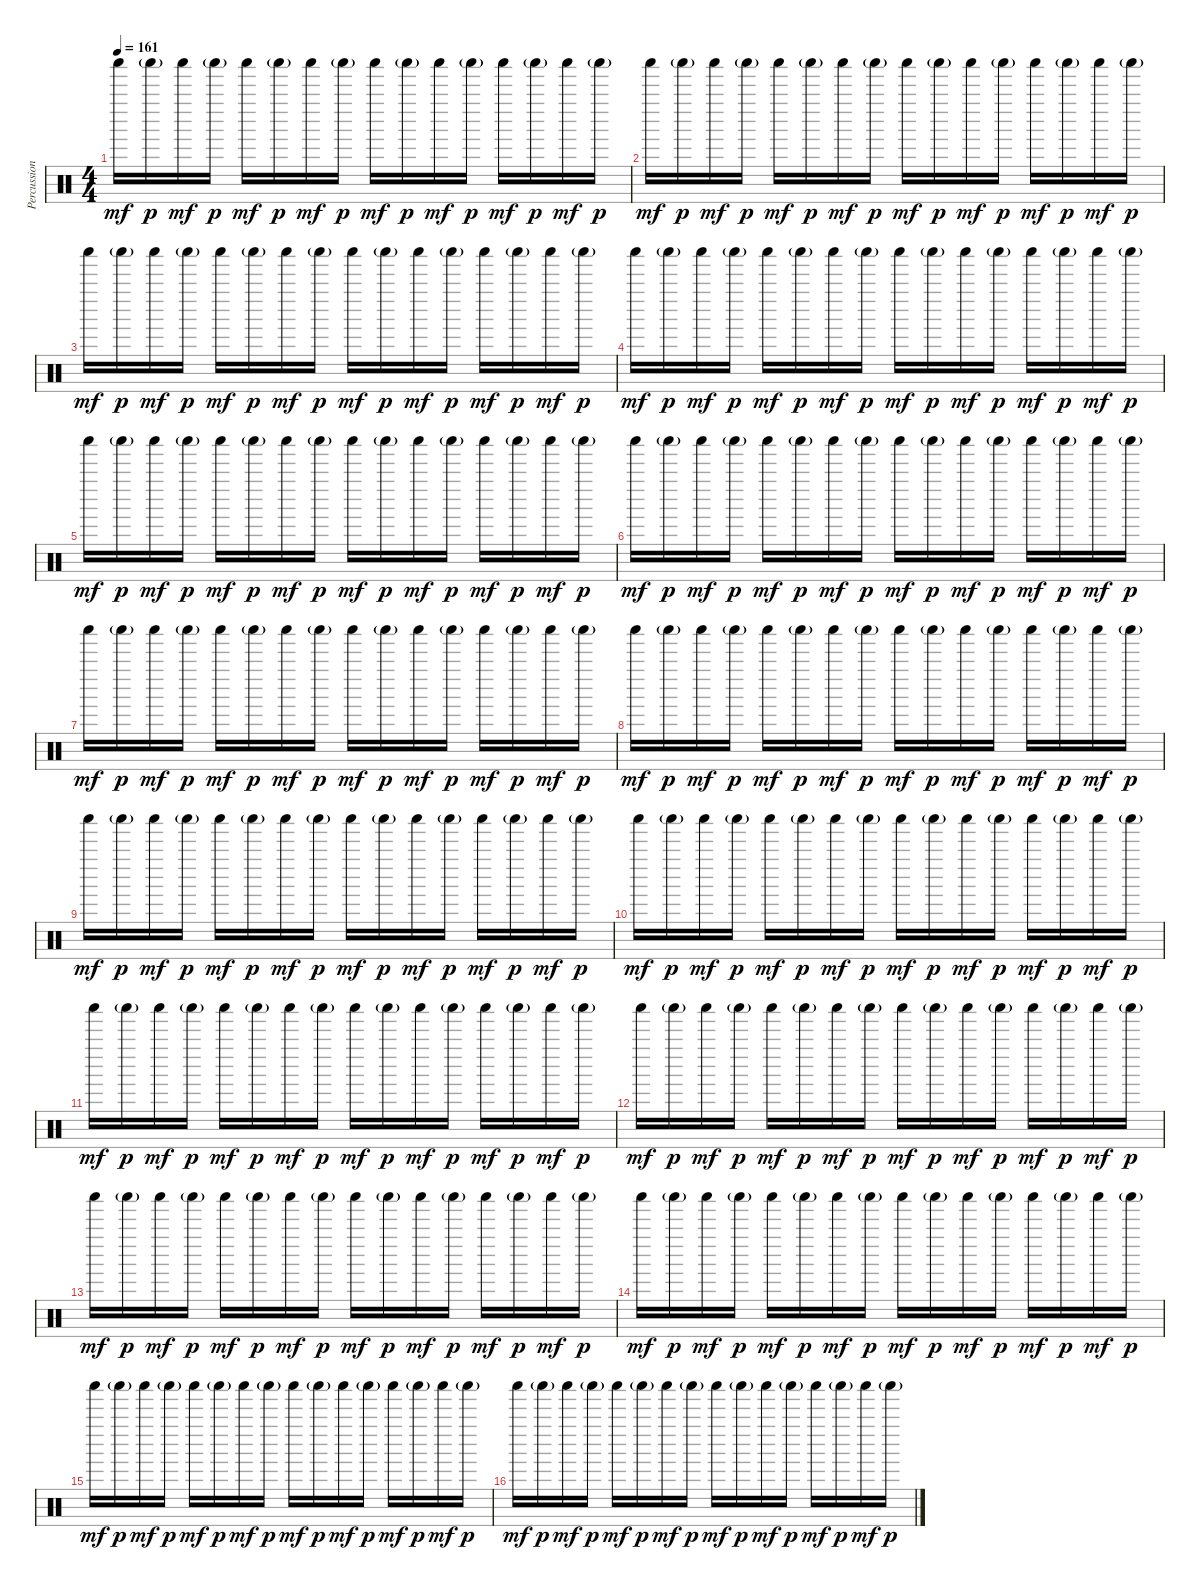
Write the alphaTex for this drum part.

\track ("Percussion" "Percussion") {instrument percussion}
\staff {score}
\articulation defaults
\ts (4 4)
\tempo 161
\clef neutral
\ks c "Shaker (hit)".16{dy mf} "Shaker (hit)"{g}.16{dy p} "Shaker (hit)".16{dy mf} "Shaker (hit)"{g}.16{dy p} "Shaker (hit)".16{dy mf} "Shaker (hit)"{g}.16{dy p} "Shaker (hit)".16{dy mf} "Shaker (hit)"{g}.16{dy p} "Shaker (hit)".16{dy mf} "Shaker (hit)"{g}.16{dy p} "Shaker (hit)".16{dy mf} "Shaker (hit)"{g}.16{dy p} "Shaker (hit)".16{dy mf} "Shaker (hit)"{g}.16{dy p} "Shaker (hit)".16{dy mf} "Shaker (hit)"{g}.16{dy p}
|
"Shaker (hit)".16{dy mf} "Shaker (hit)"{g}.16{dy p} "Shaker (hit)".16{dy mf} "Shaker (hit)"{g}.16{dy p} "Shaker (hit)".16{dy mf} "Shaker (hit)"{g}.16{dy p} "Shaker (hit)".16{dy mf} "Shaker (hit)"{g}.16{dy p} "Shaker (hit)".16{dy mf} "Shaker (hit)"{g}.16{dy p} "Shaker (hit)".16{dy mf} "Shaker (hit)"{g}.16{dy p} "Shaker (hit)".16{dy mf} "Shaker (hit)"{g}.16{dy p} "Shaker (hit)".16{dy mf} "Shaker (hit)"{g}.16{dy p} |
"Shaker (hit)".16{dy mf} "Shaker (hit)"{g}.16{dy p} "Shaker (hit)".16{dy mf} "Shaker (hit)"{g}.16{dy p} "Shaker (hit)".16{dy mf} "Shaker (hit)"{g}.16{dy p} "Shaker (hit)".16{dy mf} "Shaker (hit)"{g}.16{dy p} "Shaker (hit)".16{dy mf} "Shaker (hit)"{g}.16{dy p} "Shaker (hit)".16{dy mf} "Shaker (hit)"{g}.16{dy p} "Shaker (hit)".16{dy mf} "Shaker (hit)"{g}.16{dy p} "Shaker (hit)".16{dy mf} "Shaker (hit)"{g}.16{dy p} |
"Shaker (hit)".16{dy mf} "Shaker (hit)"{g}.16{dy p} "Shaker (hit)".16{dy mf} "Shaker (hit)"{g}.16{dy p} "Shaker (hit)".16{dy mf} "Shaker (hit)"{g}.16{dy p} "Shaker (hit)".16{dy mf} "Shaker (hit)"{g}.16{dy p} "Shaker (hit)".16{dy mf} "Shaker (hit)"{g}.16{dy p} "Shaker (hit)".16{dy mf} "Shaker (hit)"{g}.16{dy p} "Shaker (hit)".16{dy mf} "Shaker (hit)"{g}.16{dy p} "Shaker (hit)".16{dy mf} "Shaker (hit)"{g}.16{dy p} |
"Shaker (hit)".16{dy mf} "Shaker (hit)"{g}.16{dy p} "Shaker (hit)".16{dy mf} "Shaker (hit)"{g}.16{dy p} "Shaker (hit)".16{dy mf} "Shaker (hit)"{g}.16{dy p} "Shaker (hit)".16{dy mf} "Shaker (hit)"{g}.16{dy p} "Shaker (hit)".16{dy mf} "Shaker (hit)"{g}.16{dy p} "Shaker (hit)".16{dy mf} "Shaker (hit)"{g}.16{dy p} "Shaker (hit)".16{dy mf} "Shaker (hit)"{g}.16{dy p} "Shaker (hit)".16{dy mf} "Shaker (hit)"{g}.16{dy p} |
"Shaker (hit)".16{dy mf} "Shaker (hit)"{g}.16{dy p} "Shaker (hit)".16{dy mf} "Shaker (hit)"{g}.16{dy p} "Shaker (hit)".16{dy mf} "Shaker (hit)"{g}.16{dy p} "Shaker (hit)".16{dy mf} "Shaker (hit)"{g}.16{dy p} "Shaker (hit)".16{dy mf} "Shaker (hit)"{g}.16{dy p} "Shaker (hit)".16{dy mf} "Shaker (hit)"{g}.16{dy p} "Shaker (hit)".16{dy mf} "Shaker (hit)"{g}.16{dy p} "Shaker (hit)".16{dy mf} "Shaker (hit)"{g}.16{dy p} |
"Shaker (hit)".16{dy mf} "Shaker (hit)"{g}.16{dy p} "Shaker (hit)".16{dy mf} "Shaker (hit)"{g}.16{dy p} "Shaker (hit)".16{dy mf} "Shaker (hit)"{g}.16{dy p} "Shaker (hit)".16{dy mf} "Shaker (hit)"{g}.16{dy p} "Shaker (hit)".16{dy mf} "Shaker (hit)"{g}.16{dy p} "Shaker (hit)".16{dy mf} "Shaker (hit)"{g}.16{dy p} "Shaker (hit)".16{dy mf} "Shaker (hit)"{g}.16{dy p} "Shaker (hit)".16{dy mf} "Shaker (hit)"{g}.16{dy p} |
"Shaker (hit)".16{dy mf} "Shaker (hit)"{g}.16{dy p} "Shaker (hit)".16{dy mf} "Shaker (hit)"{g}.16{dy p} "Shaker (hit)".16{dy mf} "Shaker (hit)"{g}.16{dy p} "Shaker (hit)".16{dy mf} "Shaker (hit)"{g}.16{dy p} "Shaker (hit)".16{dy mf} "Shaker (hit)"{g}.16{dy p} "Shaker (hit)".16{dy mf} "Shaker (hit)"{g}.16{dy p} "Shaker (hit)".16{dy mf} "Shaker (hit)"{g}.16{dy p} "Shaker (hit)".16{dy mf} "Shaker (hit)"{g}.16{dy p} |
"Shaker (hit)".16{dy mf} "Shaker (hit)"{g}.16{dy p} "Shaker (hit)".16{dy mf} "Shaker (hit)"{g}.16{dy p} "Shaker (hit)".16{dy mf} "Shaker (hit)"{g}.16{dy p} "Shaker (hit)".16{dy mf} "Shaker (hit)"{g}.16{dy p} "Shaker (hit)".16{dy mf} "Shaker (hit)"{g}.16{dy p} "Shaker (hit)".16{dy mf} "Shaker (hit)"{g}.16{dy p} "Shaker (hit)".16{dy mf} "Shaker (hit)"{g}.16{dy p} "Shaker (hit)".16{dy mf} "Shaker (hit)"{g}.16{dy p} |
"Shaker (hit)".16{dy mf} "Shaker (hit)"{g}.16{dy p} "Shaker (hit)".16{dy mf} "Shaker (hit)"{g}.16{dy p} "Shaker (hit)".16{dy mf} "Shaker (hit)"{g}.16{dy p} "Shaker (hit)".16{dy mf} "Shaker (hit)"{g}.16{dy p} "Shaker (hit)".16{dy mf} "Shaker (hit)"{g}.16{dy p} "Shaker (hit)".16{dy mf} "Shaker (hit)"{g}.16{dy p} "Shaker (hit)".16{dy mf} "Shaker (hit)"{g}.16{dy p} "Shaker (hit)".16{dy mf} "Shaker (hit)"{g}.16{dy p} |
"Shaker (hit)".16{dy mf} "Shaker (hit)"{g}.16{dy p} "Shaker (hit)".16{dy mf} "Shaker (hit)"{g}.16{dy p} "Shaker (hit)".16{dy mf} "Shaker (hit)"{g}.16{dy p} "Shaker (hit)".16{dy mf} "Shaker (hit)"{g}.16{dy p} "Shaker (hit)".16{dy mf} "Shaker (hit)"{g}.16{dy p} "Shaker (hit)".16{dy mf} "Shaker (hit)"{g}.16{dy p} "Shaker (hit)".16{dy mf} "Shaker (hit)"{g}.16{dy p} "Shaker (hit)".16{dy mf} "Shaker (hit)"{g}.16{dy p} |
"Shaker (hit)".16{dy mf} "Shaker (hit)"{g}.16{dy p} "Shaker (hit)".16{dy mf} "Shaker (hit)"{g}.16{dy p} "Shaker (hit)".16{dy mf} "Shaker (hit)"{g}.16{dy p} "Shaker (hit)".16{dy mf} "Shaker (hit)"{g}.16{dy p} "Shaker (hit)".16{dy mf} "Shaker (hit)"{g}.16{dy p} "Shaker (hit)".16{dy mf} "Shaker (hit)"{g}.16{dy p} "Shaker (hit)".16{dy mf} "Shaker (hit)"{g}.16{dy p} "Shaker (hit)".16{dy mf} "Shaker (hit)"{g}.16{dy p} |
"Shaker (hit)".16{dy mf} "Shaker (hit)"{g}.16{dy p} "Shaker (hit)".16{dy mf} "Shaker (hit)"{g}.16{dy p} "Shaker (hit)".16{dy mf} "Shaker (hit)"{g}.16{dy p} "Shaker (hit)".16{dy mf} "Shaker (hit)"{g}.16{dy p} "Shaker (hit)".16{dy mf} "Shaker (hit)"{g}.16{dy p} "Shaker (hit)".16{dy mf} "Shaker (hit)"{g}.16{dy p} "Shaker (hit)".16{dy mf} "Shaker (hit)"{g}.16{dy p} "Shaker (hit)".16{dy mf} "Shaker (hit)"{g}.16{dy p} |
"Shaker (hit)".16{dy mf} "Shaker (hit)"{g}.16{dy p} "Shaker (hit)".16{dy mf} "Shaker (hit)"{g}.16{dy p} "Shaker (hit)".16{dy mf} "Shaker (hit)"{g}.16{dy p} "Shaker (hit)".16{dy mf} "Shaker (hit)"{g}.16{dy p} "Shaker (hit)".16{dy mf} "Shaker (hit)"{g}.16{dy p} "Shaker (hit)".16{dy mf} "Shaker (hit)"{g}.16{dy p} "Shaker (hit)".16{dy mf} "Shaker (hit)"{g}.16{dy p} "Shaker (hit)".16{dy mf} "Shaker (hit)"{g}.16{dy p} |
"Shaker (hit)".16{dy mf} "Shaker (hit)"{g}.16{dy p} "Shaker (hit)".16{dy mf} "Shaker (hit)"{g}.16{dy p} "Shaker (hit)".16{dy mf} "Shaker (hit)"{g}.16{dy p} "Shaker (hit)".16{dy mf} "Shaker (hit)"{g}.16{dy p} "Shaker (hit)".16{dy mf} "Shaker (hit)"{g}.16{dy p} "Shaker (hit)".16{dy mf} "Shaker (hit)"{g}.16{dy p} "Shaker (hit)".16{dy mf} "Shaker (hit)"{g}.16{dy p} "Shaker (hit)".16{dy mf} "Shaker (hit)"{g}.16{dy p} |
"Shaker (hit)".16{dy mf} "Shaker (hit)"{g}.16{dy p} "Shaker (hit)".16{dy mf} "Shaker (hit)"{g}.16{dy p} "Shaker (hit)".16{dy mf} "Shaker (hit)"{g}.16{dy p} "Shaker (hit)".16{dy mf} "Shaker (hit)"{g}.16{dy p} "Shaker (hit)".16{dy mf} "Shaker (hit)"{g}.16{dy p} "Shaker (hit)".16{dy mf} "Shaker (hit)"{g}.16{dy p} "Shaker (hit)".16{dy mf} "Shaker (hit)"{g}.16{dy p} "Shaker (hit)".16{dy mf} "Shaker (hit)"{g}.16{dy p}
